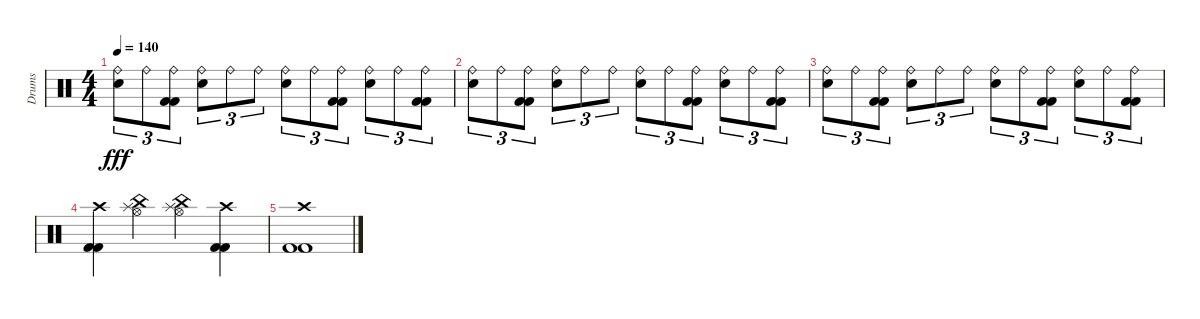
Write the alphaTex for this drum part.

\track ("Drums" "Drums") {instrument percussion}
\staff {score}
\articulation defaults
\ts (4 4)
\tempo 140
\clef neutral
\ks c
("Ride (bell)" "Snare (hit) 2").8{tu (3 2) dy fff} "Ride (bell)".8{tu (3 2)} ("Ride (bell)" "Kick (hit) 2" "Kick (hit) 2").8{tu (3 2)} ("Ride (bell)" "Snare (hit) 2").8{tu (3 2)} "Ride (bell)".8{tu (3 2)} "Ride (bell)".8{tu (3 2)} ("Ride (bell)" "Snare (hit) 2").8{tu (3 2)} "Ride (bell)".8{tu (3 2)} ("Ride (bell)" "Kick (hit) 2" "Kick (hit) 2").8{tu (3 2)} ("Ride (bell)" "Snare (hit) 2").8{tu (3 2)} "Ride (bell)".8{tu (3 2)} ("Ride (bell)" "Kick (hit) 2" "Kick (hit) 2").8{tu (3 2)} |
("Ride (bell)" "Snare (hit) 2").8{tu (3 2)} "Ride (bell)".8{tu (3 2)} ("Ride (bell)" "Kick (hit) 2" "Kick (hit) 2").8{tu (3 2)} ("Ride (bell)" "Snare (hit) 2").8{tu (3 2)} "Ride (bell)".8{tu (3 2)} "Ride (bell)".8{tu (3 2)} ("Ride (bell)" "Snare (hit) 2").8{tu (3 2)} "Ride (bell)".8{tu (3 2)} ("Ride (bell)" "Kick (hit) 2" "Kick (hit) 2").8{tu (3 2)} ("Ride (bell)" "Snare (hit) 2").8{tu (3 2)} "Ride (bell)".8{tu (3 2)} ("Ride (bell)" "Kick (hit) 2" "Kick (hit) 2").8{tu (3 2)} |
("Ride (bell)" "Snare (hit) 2").8{tu (3 2)} "Ride (bell)".8{tu (3 2)} ("Ride (bell)" "Kick (hit) 2" "Kick (hit) 2").8{tu (3 2)} ("Ride (bell)" "Snare (hit) 2").8{tu (3 2)} "Ride (bell)".8{tu (3 2)} "Ride (bell)".8{tu (3 2)} ("Ride (bell)" "Snare (hit) 2").8{tu (3 2)} "Ride (bell)".8{tu (3 2)} ("Ride (bell)" "Kick (hit) 2" "Kick (hit) 2").8{tu (3 2)} ("Ride (bell)" "Snare (hit) 2").8{tu (3 2)} "Ride (bell)".8{tu (3 2)} ("Ride (bell)" "Kick (hit) 2" "Kick (hit) 2").8{tu (3 2)} |
("Crash high (hit)" "Kick (hit) 2" "Kick (hit) 2").4 ("Splash (hit)" "China (hit)" "Hi-Hat (open)").4 ("Splash (hit)" "China (hit)" "Hi-Hat (open)").4 ("Crash high (hit)" "Kick (hit) 2" "Kick (hit) 2").4 |
("Crash high (hit)" "Kick (hit) 2" "Kick (hit) 2").1
